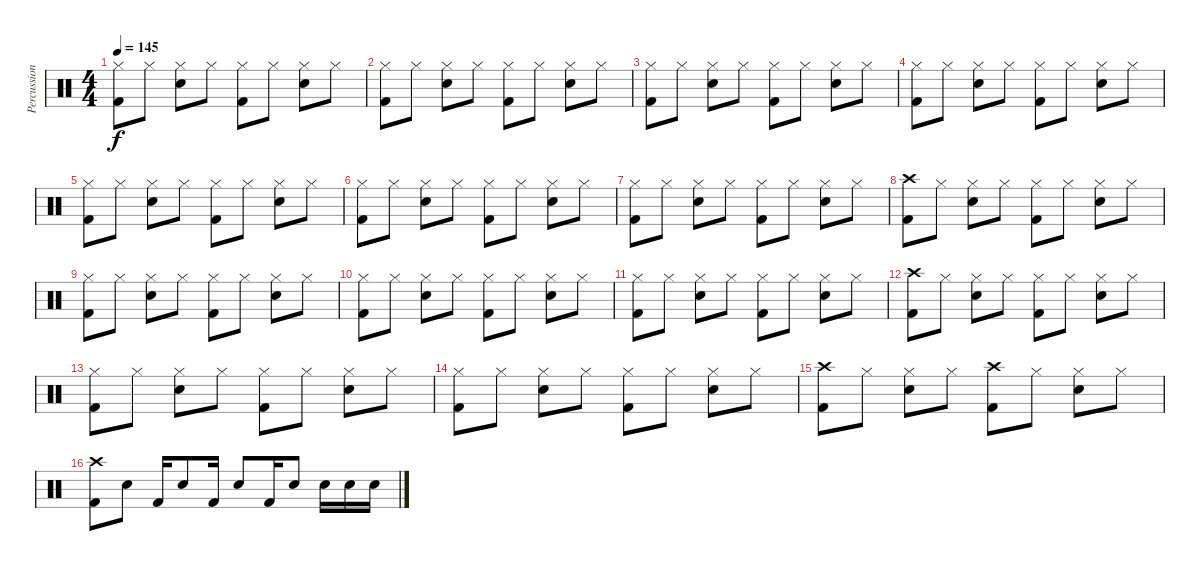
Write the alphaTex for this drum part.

\track ("Percussion" "Percussion") {instrument percussion}
\staff {score}
\articulation defaults
\ts (4 4)
\tempo 145
\clef neutral
\ks c
("Hi-Hat (closed)" "Kick (hit) 2").8{dy f} "Hi-Hat (closed)".8 ("Hi-Hat (closed)" "Snare (hit) 2").8 "Hi-Hat (closed)".8 ("Hi-Hat (closed)" "Kick (hit) 2").8 "Hi-Hat (closed)".8 ("Hi-Hat (closed)" "Snare (hit) 2").8 "Hi-Hat (closed)".8 |
("Hi-Hat (closed)" "Kick (hit) 2").8 "Hi-Hat (closed)".8 ("Hi-Hat (closed)" "Snare (hit) 2").8 "Hi-Hat (closed)".8 ("Hi-Hat (closed)" "Kick (hit) 2").8 "Hi-Hat (closed)".8 ("Hi-Hat (closed)" "Snare (hit) 2").8 "Hi-Hat (closed)".8 |
("Hi-Hat (closed)" "Kick (hit) 2").8 "Hi-Hat (closed)".8 ("Hi-Hat (closed)" "Snare (hit) 2").8 "Hi-Hat (closed)".8 ("Hi-Hat (closed)" "Kick (hit) 2").8 "Hi-Hat (closed)".8 ("Hi-Hat (closed)" "Snare (hit) 2").8 "Hi-Hat (closed)".8 |
("Hi-Hat (closed)" "Kick (hit) 2").8 "Hi-Hat (closed)".8 ("Hi-Hat (closed)" "Snare (hit) 2").8 "Hi-Hat (closed)".8 ("Hi-Hat (closed)" "Kick (hit) 2").8 "Hi-Hat (closed)".8 ("Hi-Hat (closed)" "Snare (hit) 2").8 "Hi-Hat (closed)".8 |
("Hi-Hat (closed)" "Kick (hit) 2").8 "Hi-Hat (closed)".8 ("Hi-Hat (closed)" "Snare (hit) 2").8 "Hi-Hat (closed)".8 ("Hi-Hat (closed)" "Kick (hit) 2").8 "Hi-Hat (closed)".8 ("Hi-Hat (closed)" "Snare (hit) 2").8 "Hi-Hat (closed)".8 |
("Hi-Hat (closed)" "Kick (hit) 2").8 "Hi-Hat (closed)".8 ("Hi-Hat (closed)" "Snare (hit) 2").8 "Hi-Hat (closed)".8 ("Hi-Hat (closed)" "Kick (hit) 2").8 "Hi-Hat (closed)".8 ("Hi-Hat (closed)" "Snare (hit) 2").8 "Hi-Hat (closed)".8 |
("Hi-Hat (closed)" "Kick (hit) 2").8 "Hi-Hat (closed)".8 ("Hi-Hat (closed)" "Snare (hit) 2").8 "Hi-Hat (closed)".8 ("Hi-Hat (closed)" "Kick (hit) 2").8 "Hi-Hat (closed)".8 ("Hi-Hat (closed)" "Snare (hit) 2").8 "Hi-Hat (closed)".8 |
("Crash high (hit)" "Kick (hit) 2").8 "Hi-Hat (closed)".8 ("Hi-Hat (closed)" "Snare (hit) 2").8 "Hi-Hat (closed)".8 ("Hi-Hat (closed)" "Kick (hit) 2").8 "Hi-Hat (closed)".8 ("Hi-Hat (closed)" "Snare (hit) 2").8 "Hi-Hat (closed)".8 |
("Hi-Hat (closed)" "Kick (hit) 2").8 "Hi-Hat (closed)".8 ("Hi-Hat (closed)" "Snare (hit) 2").8 "Hi-Hat (closed)".8 ("Hi-Hat (closed)" "Kick (hit) 2").8 "Hi-Hat (closed)".8 ("Hi-Hat (closed)" "Snare (hit) 2").8 "Hi-Hat (closed)".8 |
("Hi-Hat (closed)" "Kick (hit) 2").8 "Hi-Hat (closed)".8 ("Hi-Hat (closed)" "Snare (hit) 2").8 "Hi-Hat (closed)".8 ("Hi-Hat (closed)" "Kick (hit) 2").8 "Hi-Hat (closed)".8 ("Hi-Hat (closed)" "Snare (hit) 2").8 "Hi-Hat (closed)".8 |
("Hi-Hat (closed)" "Kick (hit) 2").8 "Hi-Hat (closed)".8 ("Hi-Hat (closed)" "Snare (hit) 2").8 "Hi-Hat (closed)".8 ("Hi-Hat (closed)" "Kick (hit) 2").8 "Hi-Hat (closed)".8 ("Hi-Hat (closed)" "Snare (hit) 2").8 "Hi-Hat (closed)".8 |
("Crash high (hit)" "Kick (hit) 2").8 "Hi-Hat (closed)".8 ("Hi-Hat (closed)" "Snare (hit) 2").8 "Hi-Hat (closed)".8 ("Hi-Hat (closed)" "Kick (hit) 2").8 "Hi-Hat (closed)".8 ("Hi-Hat (closed)" "Snare (hit) 2").8 "Hi-Hat (closed)".8 |
("Hi-Hat (closed)" "Kick (hit) 2").8 "Hi-Hat (closed)".8 ("Hi-Hat (closed)" "Snare (hit) 2").8 "Hi-Hat (closed)".8 ("Hi-Hat (closed)" "Kick (hit) 2").8 "Hi-Hat (closed)".8 ("Hi-Hat (closed)" "Snare (hit) 2").8 "Hi-Hat (closed)".8 |
("Hi-Hat (closed)" "Kick (hit) 2").8 "Hi-Hat (closed)".8 ("Hi-Hat (closed)" "Snare (hit) 2").8 "Hi-Hat (closed)".8 ("Hi-Hat (closed)" "Kick (hit) 2").8 "Hi-Hat (closed)".8 ("Hi-Hat (closed)" "Snare (hit) 2").8 "Hi-Hat (closed)".8 |
("Crash high (hit)" "Kick (hit) 2").8 "Hi-Hat (closed)".8 ("Hi-Hat (closed)" "Snare (hit) 2").8 "Hi-Hat (closed)".8 ("Crash high (hit)" "Kick (hit) 2").8 "Hi-Hat (closed)".8 ("Hi-Hat (closed)" "Snare (hit) 2").8 "Hi-Hat (closed)".8 |
("Crash high (hit)" "Kick (hit) 2").8 "Electric Snare (hit)".8 "Kick (hit) 2".16 "Electric Snare (hit)".8 "Kick (hit) 2".16 "Electric Snare (hit)".8 "Kick (hit) 2".16 "Electric Snare (hit)".8 "Electric Snare (hit)".16 "Electric Snare (hit)".16 "Electric Snare (hit)".16
